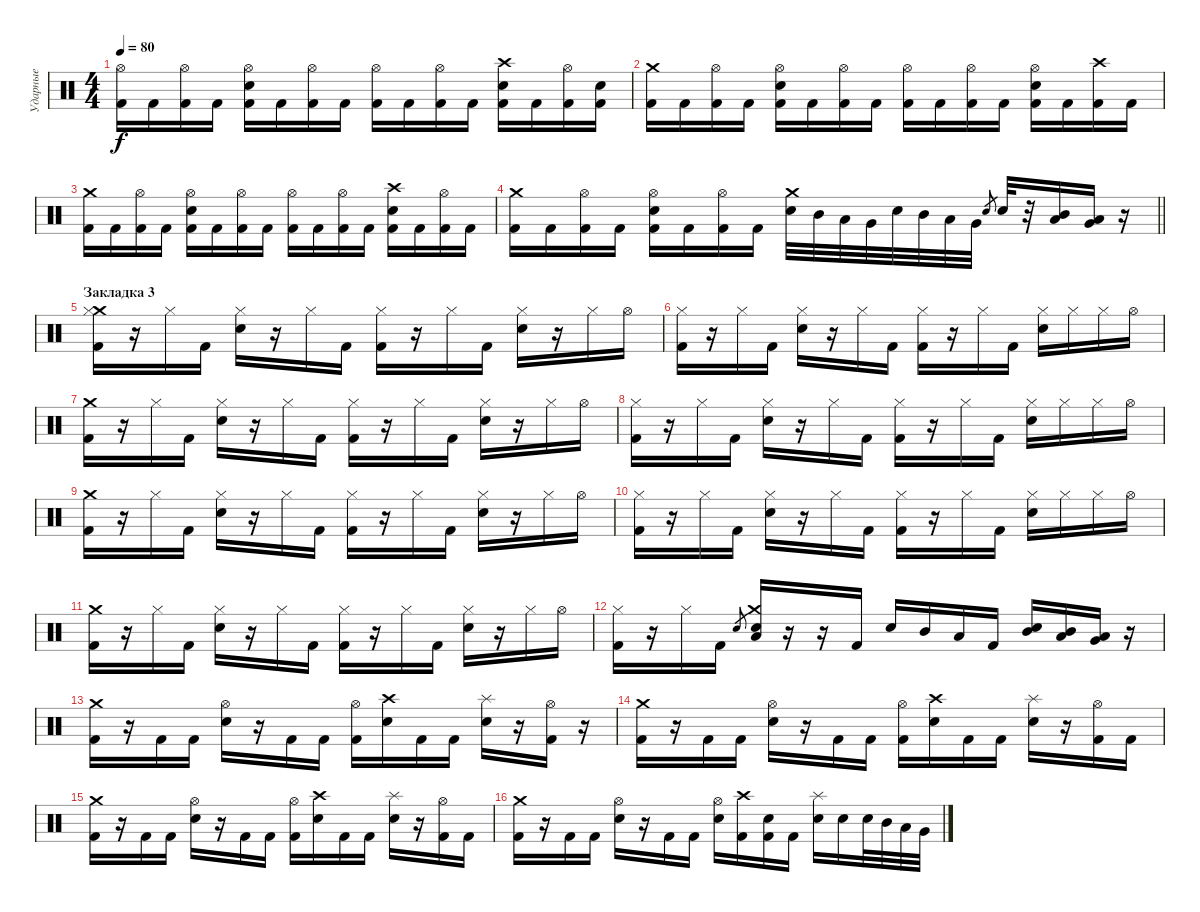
\track ("Ударные" "Ударные") {instrument percussion}
\staff {score}
\articulation defaults
\ts (4 4)
\tempo 80
\clef neutral
\ks c
("Hi-Hat (open)" "Kick (hit) 2").16{dy f} "Kick (hit) 2".16 ("Hi-Hat (open)" "Kick (hit) 2").16 "Kick (hit) 2".16 ("Hi-Hat (open)" "Snare (hit) 2" "Kick (hit) 2").16 "Kick (hit) 2".16 ("Hi-Hat (open)" "Kick (hit) 2").16 "Kick (hit) 2".16 ("Hi-Hat (open)" "Kick (hit) 2").16 "Kick (hit) 2".16 ("Hi-Hat (open)" "Kick (hit) 2").16 "Kick (hit) 2".16 ("Crash high (hit)" "Snare (hit) 2" "Kick (hit) 2").16 "Kick (hit) 2".16 ("Hi-Hat (open)" "Kick (hit) 2").16 ("Snare (hit) 2" "Kick (hit) 2").16 |
("Crash medium (hit)" "Kick (hit) 2").16 "Kick (hit) 2".16 ("Hi-Hat (open)" "Kick (hit) 2").16 "Kick (hit) 2".16 ("Hi-Hat (open)" "Snare (hit) 2" "Kick (hit) 2").16 "Kick (hit) 2".16 ("Hi-Hat (open)" "Kick (hit) 2").16 "Kick (hit) 2".16 ("Hi-Hat (open)" "Kick (hit) 2").16 "Kick (hit) 2".16 ("Hi-Hat (open)" "Kick (hit) 2").16 "Kick (hit) 2".16 ("Hi-Hat (open)" "Snare (hit) 2" "Kick (hit) 2").16 "Kick (hit) 2".16 ("Crash high (hit)" "Kick (hit) 2").16 "Kick (hit) 2".16 |
("Crash medium (hit)" "Kick (hit) 2").16 "Kick (hit) 2".16 ("Hi-Hat (open)" "Kick (hit) 2").16 "Kick (hit) 2".16 ("Hi-Hat (open)" "Snare (hit) 2" "Kick (hit) 2").16 "Kick (hit) 2".16 ("Hi-Hat (open)" "Kick (hit) 2").16 "Kick (hit) 2".16 ("Hi-Hat (open)" "Kick (hit) 2").16 "Kick (hit) 2".16 ("Hi-Hat (open)" "Kick (hit) 2").16 "Kick (hit) 2".16 ("Crash high (hit)" "Snare (hit) 2" "Kick (hit) 2").16 "Kick (hit) 2".16 ("Hi-Hat (open)" "Kick (hit) 2").16 "Kick (hit) 2".16 |
\barLineRight lightlight
("Crash medium (hit)" "Kick (hit) 2").16 "Kick (hit) 2".16 ("Hi-Hat (open)" "Kick (hit) 2").16 "Kick (hit) 2".16 ("Hi-Hat (open)" "Snare (hit) 2" "Kick (hit) 2").16 "Kick (hit) 2".16 ("Hi-Hat (open)" "Kick (hit) 2").16 "Kick (hit) 2".16 ("Crash medium (hit)" "Snare (hit) 2").32 "Mid Tom (hit)".32 "Low Tom (hit)".32 "Very Low Tom (hit)".32 "Snare (hit) 2".32 "Mid Tom (hit)".32 "Low Tom (hit)".32 "Very Low Tom (hit)".32 "Snare (hit) 2".8{gr} "Snare (hit) 2".32 r.32 ("Mid Tom (hit)" "Low Tom (hit)").16 ("Very Low Tom (hit)" "Low Floor Tom (hit)").16 r.16 |
\section ("" "Закладка 3")
("Crash medium (hit)" "Hi-Hat (closed)" "Kick (hit) 2").16 r.16 "Hi-Hat (closed)".16 "Kick (hit) 2".16 ("Hi-Hat (closed)" "Snare (hit) 2").16 r.16 "Hi-Hat (closed)".16 "Kick (hit) 2".16 ("Hi-Hat (closed)" "Kick (hit) 2").16 r.16 "Hi-Hat (closed)".16 "Kick (hit) 2".16 ("Hi-Hat (closed)" "Snare (hit) 2").16 r.16 "Hi-Hat (closed)".16 "Hi-Hat (open)".16 |
("Hi-Hat (closed)" "Kick (hit) 2").16 r.16 "Hi-Hat (closed)".16 "Kick (hit) 2".16 ("Hi-Hat (closed)" "Snare (hit) 2").16 r.16 "Hi-Hat (closed)".16 "Kick (hit) 2".16 ("Hi-Hat (closed)" "Kick (hit) 2").16 r.16 "Hi-Hat (closed)".16 "Kick (hit) 2".16 ("Hi-Hat (closed)" "Snare (hit) 2").16 "Hi-Hat (closed)".16 "Hi-Hat (closed)".16 "Hi-Hat (open)".16 |
("Crash medium (hit)" "Kick (hit) 2").16 r.16 "Hi-Hat (closed)".16 "Kick (hit) 2".16 ("Hi-Hat (closed)" "Snare (hit) 2").16 r.16 "Hi-Hat (closed)".16 "Kick (hit) 2".16 ("Hi-Hat (closed)" "Kick (hit) 2").16 r.16 "Hi-Hat (closed)".16 "Kick (hit) 2".16 ("Hi-Hat (closed)" "Snare (hit) 2").16 r.16 "Hi-Hat (closed)".16 "Hi-Hat (open)".16 |
("Hi-Hat (closed)" "Kick (hit) 2").16 r.16 "Hi-Hat (closed)".16 "Kick (hit) 2".16 ("Hi-Hat (closed)" "Snare (hit) 2").16 r.16 "Hi-Hat (closed)".16 "Kick (hit) 2".16 ("Hi-Hat (closed)" "Kick (hit) 2").16 r.16 "Hi-Hat (closed)".16 "Kick (hit) 2".16 ("Hi-Hat (closed)" "Snare (hit) 2").16 "Hi-Hat (closed)".16 "Hi-Hat (closed)".16 "Hi-Hat (open)".16 |
("Crash medium (hit)" "Kick (hit) 2").16 r.16 "Hi-Hat (closed)".16 "Kick (hit) 2".16 ("Hi-Hat (closed)" "Snare (hit) 2").16 r.16 "Hi-Hat (closed)".16 "Kick (hit) 2".16 ("Hi-Hat (closed)" "Kick (hit) 2").16 r.16 "Hi-Hat (closed)".16 "Kick (hit) 2".16 ("Hi-Hat (closed)" "Snare (hit) 2").16 r.16 "Hi-Hat (closed)".16 "Hi-Hat (open)".16 |
("Hi-Hat (closed)" "Kick (hit) 2").16 r.16 "Hi-Hat (closed)".16 "Kick (hit) 2".16 ("Hi-Hat (closed)" "Snare (hit) 2").16 r.16 "Hi-Hat (closed)".16 "Kick (hit) 2".16 ("Hi-Hat (closed)" "Kick (hit) 2").16 r.16 "Hi-Hat (closed)".16 "Kick (hit) 2".16 ("Hi-Hat (closed)" "Snare (hit) 2").16 "Hi-Hat (closed)".16 "Hi-Hat (closed)".16 "Hi-Hat (open)".16 |
("Crash medium (hit)" "Kick (hit) 2").16 r.16 "Hi-Hat (closed)".16 "Kick (hit) 2".16 ("Hi-Hat (closed)" "Snare (hit) 2").16 r.16 "Hi-Hat (closed)".16 "Kick (hit) 2".16 ("Hi-Hat (closed)" "Kick (hit) 2").16 r.16 "Hi-Hat (closed)".16 "Kick (hit) 2".16 ("Hi-Hat (closed)" "Snare (hit) 2").16 r.16 "Hi-Hat (closed)".16 "Hi-Hat (open)".16 |
("Hi-Hat (closed)" "Kick (hit) 2").16 r.16 "Hi-Hat (closed)".16 "Kick (hit) 2".16 "Snare (hit) 2".8{gr} ("Crash medium (hit)" "Snare (hit) 2" "Low Floor Tom (hit)").16 r.16 r.16 "Kick (hit) 2".16 "Snare (hit) 2".16 "Mid Tom (hit)".16 "Low Tom (hit)".16 "Kick (hit) 2".16 ("Snare (hit) 2" "Mid Tom (hit)").16 ("Mid Tom (hit)" "Low Tom (hit)").16 ("Very Low Tom (hit)" "Low Floor Tom (hit)").16 r.16 |
("Crash medium (hit)" "Kick (hit) 2").16 r.16 "Kick (hit) 2".16 "Kick (hit) 2".16 ("Hi-Hat (open)" "Snare (hit) 2").16 r.16 "Kick (hit) 2".16 "Kick (hit) 2".16 ("Hi-Hat (open)" "Kick (hit) 2").16 ("Crash high (hit)" "Snare (hit) 2").16 "Kick (hit) 2".16 "Kick (hit) 2".16 ("Splash (hit)" "Snare (hit) 2").16 r.16 ("Hi-Hat (open)" "Kick (hit) 2").16 r.16 |
("Crash medium (hit)" "Kick (hit) 2").16 r.16 "Kick (hit) 2".16 "Kick (hit) 2".16 ("Hi-Hat (open)" "Snare (hit) 2").16 r.16 "Kick (hit) 2".16 "Kick (hit) 2".16 ("Hi-Hat (open)" "Kick (hit) 2").16 ("Crash high (hit)" "Snare (hit) 2").16 "Kick (hit) 2".16 "Kick (hit) 2".16 ("Splash (hit)" "Snare (hit) 2").16 r.16 ("Hi-Hat (open)" "Kick (hit) 2").16 "Kick (hit) 2".16 |
("Crash medium (hit)" "Kick (hit) 2").16 r.16 "Kick (hit) 2".16 "Kick (hit) 2".16 ("Hi-Hat (open)" "Snare (hit) 2").16 r.16 "Kick (hit) 2".16 "Kick (hit) 2".16 ("Hi-Hat (open)" "Kick (hit) 2").16 ("Crash high (hit)" "Snare (hit) 2").16 "Kick (hit) 2".16 "Kick (hit) 2".16 ("Splash (hit)" "Snare (hit) 2").16 r.16 ("Hi-Hat (open)" "Kick (hit) 2").16 "Kick (hit) 2".16 |
("Crash medium (hit)" "Kick (hit) 2").16 r.16 "Kick (hit) 2".16 "Kick (hit) 2".16 ("Hi-Hat (open)" "Snare (hit) 2").16 r.16 "Kick (hit) 2".16 "Kick (hit) 2".16 ("Hi-Hat (open)" "Snare (hit) 2").16 ("Crash high (hit)" "Kick (hit) 2").16 ("Snare (hit) 2" "Kick (hit) 2").16 "Kick (hit) 2".16 ("Splash (hit)" "Snare (hit) 2").16 "Snare (hit) 2".16 "Snare (hit) 2".32 "Mid Tom (hit)".32 "Low Tom (hit)".32 "Very Low Tom (hit)".32
